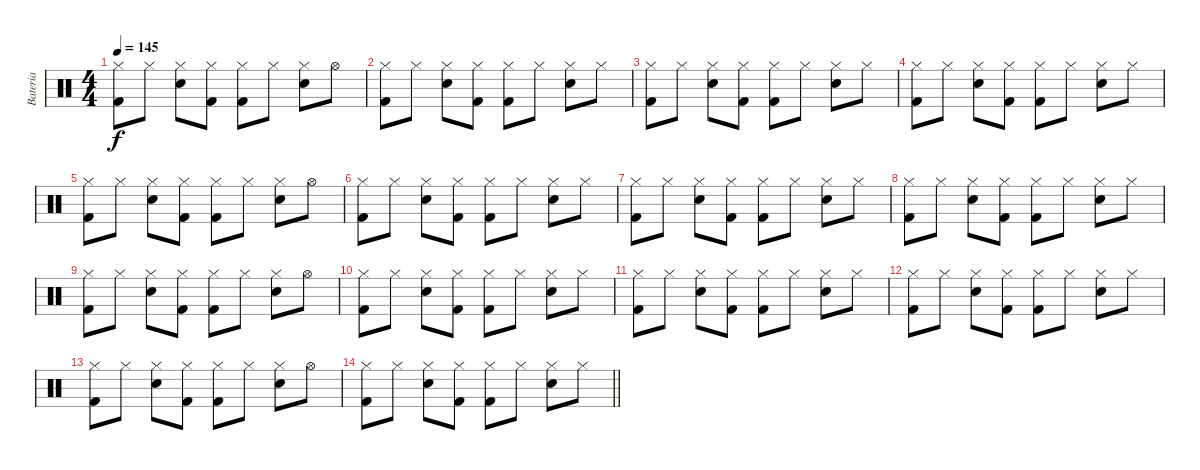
\track ("Bateria" "Bateria") {instrument percussion}
\staff {score}
\articulation defaults
\ts (4 4)
\tempo 145
\clef neutral
\ks c
("Hi-Hat (closed)" "Kick (hit) 2").8{dy f} "Hi-Hat (closed)".8 ("Hi-Hat (closed)" "Electric Snare (hit)").8 ("Hi-Hat (closed)" "Kick (hit) 2").8 ("Hi-Hat (closed)" "Kick (hit) 2").8 "Hi-Hat (closed)".8 ("Hi-Hat (closed)" "Electric Snare (hit)").8 "Hi-Hat (open)".8 |
("Hi-Hat (closed)" "Kick (hit) 2").8 "Hi-Hat (closed)".8 ("Hi-Hat (closed)" "Electric Snare (hit)").8 ("Hi-Hat (closed)" "Kick (hit) 2").8 ("Hi-Hat (closed)" "Kick (hit) 2").8 "Hi-Hat (closed)".8 ("Hi-Hat (closed)" "Electric Snare (hit)").8 "Hi-Hat (closed)".8 |
("Hi-Hat (closed)" "Kick (hit) 2").8 "Hi-Hat (closed)".8 ("Hi-Hat (closed)" "Electric Snare (hit)").8 ("Hi-Hat (closed)" "Kick (hit) 2").8 ("Hi-Hat (closed)" "Kick (hit) 2").8 "Hi-Hat (closed)".8 ("Hi-Hat (closed)" "Electric Snare (hit)").8 "Hi-Hat (closed)".8 |
("Hi-Hat (closed)" "Kick (hit) 2").8 "Hi-Hat (closed)".8 ("Hi-Hat (closed)" "Electric Snare (hit)").8 ("Hi-Hat (closed)" "Kick (hit) 2").8 ("Hi-Hat (closed)" "Kick (hit) 2").8 "Hi-Hat (closed)".8 ("Hi-Hat (closed)" "Electric Snare (hit)").8 "Hi-Hat (closed)".8 |
("Hi-Hat (closed)" "Kick (hit) 2").8 "Hi-Hat (closed)".8 ("Hi-Hat (closed)" "Electric Snare (hit)").8 ("Hi-Hat (closed)" "Kick (hit) 2").8 ("Hi-Hat (closed)" "Kick (hit) 2").8 "Hi-Hat (closed)".8 ("Hi-Hat (closed)" "Electric Snare (hit)").8 "Hi-Hat (open)".8 |
("Hi-Hat (closed)" "Kick (hit) 2").8 "Hi-Hat (closed)".8 ("Hi-Hat (closed)" "Electric Snare (hit)").8 ("Hi-Hat (closed)" "Kick (hit) 2").8 ("Hi-Hat (closed)" "Kick (hit) 2").8 "Hi-Hat (closed)".8 ("Hi-Hat (closed)" "Electric Snare (hit)").8 "Hi-Hat (closed)".8 |
("Hi-Hat (closed)" "Kick (hit) 2").8 "Hi-Hat (closed)".8 ("Hi-Hat (closed)" "Electric Snare (hit)").8 ("Hi-Hat (closed)" "Kick (hit) 2").8 ("Hi-Hat (closed)" "Kick (hit) 2").8 "Hi-Hat (closed)".8 ("Hi-Hat (closed)" "Electric Snare (hit)").8 "Hi-Hat (closed)".8 |
("Hi-Hat (closed)" "Kick (hit) 2").8 "Hi-Hat (closed)".8 ("Hi-Hat (closed)" "Electric Snare (hit)").8 ("Hi-Hat (closed)" "Kick (hit) 2").8 ("Hi-Hat (closed)" "Kick (hit) 2").8 "Hi-Hat (closed)".8 ("Hi-Hat (closed)" "Electric Snare (hit)").8 "Hi-Hat (closed)".8 |
("Hi-Hat (closed)" "Kick (hit) 2").8 "Hi-Hat (closed)".8 ("Hi-Hat (closed)" "Electric Snare (hit)").8 ("Hi-Hat (closed)" "Kick (hit) 2").8 ("Hi-Hat (closed)" "Kick (hit) 2").8 "Hi-Hat (closed)".8 ("Hi-Hat (closed)" "Electric Snare (hit)").8 "Hi-Hat (open)".8 |
("Hi-Hat (closed)" "Kick (hit) 2").8 "Hi-Hat (closed)".8 ("Hi-Hat (closed)" "Electric Snare (hit)").8 ("Hi-Hat (closed)" "Kick (hit) 2").8 ("Hi-Hat (closed)" "Kick (hit) 2").8 "Hi-Hat (closed)".8 ("Hi-Hat (closed)" "Electric Snare (hit)").8 "Hi-Hat (closed)".8 |
("Hi-Hat (closed)" "Kick (hit) 2").8 "Hi-Hat (closed)".8 ("Hi-Hat (closed)" "Electric Snare (hit)").8 ("Hi-Hat (closed)" "Kick (hit) 2").8 ("Hi-Hat (closed)" "Kick (hit) 2").8 "Hi-Hat (closed)".8 ("Hi-Hat (closed)" "Electric Snare (hit)").8 "Hi-Hat (closed)".8 |
("Hi-Hat (closed)" "Kick (hit) 2").8 "Hi-Hat (closed)".8 ("Hi-Hat (closed)" "Electric Snare (hit)").8 ("Hi-Hat (closed)" "Kick (hit) 2").8 ("Hi-Hat (closed)" "Kick (hit) 2").8 "Hi-Hat (closed)".8 ("Hi-Hat (closed)" "Electric Snare (hit)").8 "Hi-Hat (closed)".8 |
("Hi-Hat (closed)" "Kick (hit) 2").8 "Hi-Hat (closed)".8 ("Hi-Hat (closed)" "Electric Snare (hit)").8 ("Hi-Hat (closed)" "Kick (hit) 2").8 ("Hi-Hat (closed)" "Kick (hit) 2").8 "Hi-Hat (closed)".8 ("Hi-Hat (closed)" "Electric Snare (hit)").8 "Hi-Hat (open)".8 |
\barLineRight lightlight
("Hi-Hat (closed)" "Kick (hit) 2").8 "Hi-Hat (closed)".8 ("Hi-Hat (closed)" "Electric Snare (hit)").8 ("Hi-Hat (closed)" "Kick (hit) 2").8 ("Hi-Hat (closed)" "Kick (hit) 2").8 "Hi-Hat (closed)".8 ("Hi-Hat (closed)" "Electric Snare (hit)").8 "Hi-Hat (closed)".8
